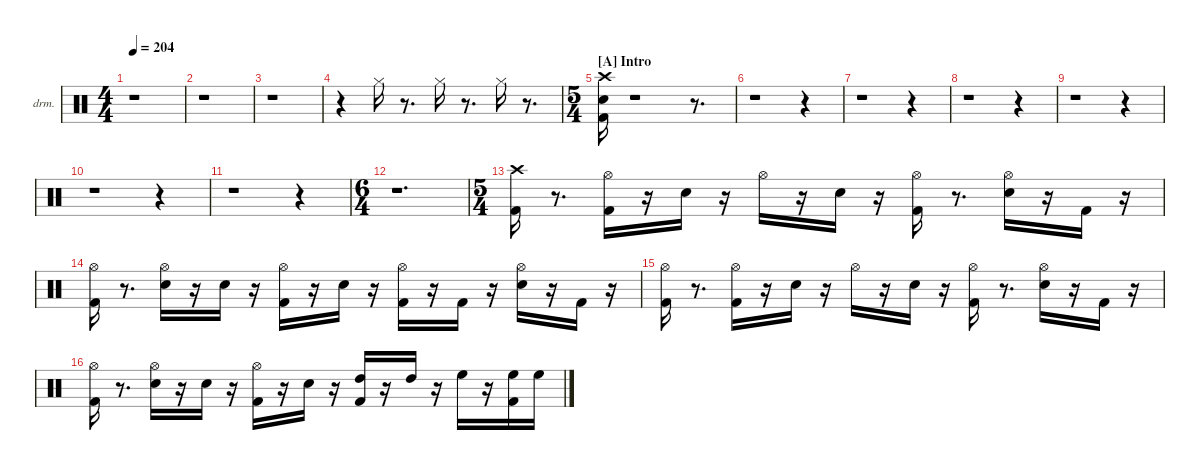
\hideDynamics
\bracketExtendMode nobrackets
\firstSystemTrackNameOrientation horizontal
\otherSystemsTrackNameOrientation horizontal
\track ("drums" "drm.") {instrument percussion}
\staff {score}
\articulation defaults
\ts (4 4)
\tempo 204
\clef neutral
\ks aminor
r.1{dy f beam Down} |
r.1{beam Down} |
r.1{beam Down} |
r.4{beam Down} "Hi-Hat (closed)"{acc #}.16{beam Down} r.8{d beam Down} "Hi-Hat (closed)"{acc #}.16{dy mf beam Down} r.8{d beam Down} "Hi-Hat (closed)"{acc #}.16{dy f beam Down} r.8{d beam Down} |
\ts (5 4)
\section ("A" "Intro")
("Kick (hit) 2" "Snare (hit) 2" "Crash high (hit)"{acc #}).16{dy fff beam Down} r.1{beam Down} r.8{d beam Down} |
r.1{beam Down} r.4{beam Down} |
r.1{beam Down} r.4{beam Down} |
r.1{beam Down} r.4{beam Down} |
r.1{beam Down} r.4{beam Down} |
r.1{beam Down} r.4{beam Down} |
r.1{beam Down} r.4{beam Down} |
\ts (6 4)
r.1{d beam Down} |
\ts (5 4)
("Kick (hit) 2" "Crash high (hit)"{acc #}).16{beam Down} r.8{d beam Down} ("Kick (hit) 2" "Hi-Hat (open)"{acc #}).16{dy f beam Down} r.16{beam Down} "Snare (hit) 2".16{dy ff beam Down} r.16{beam Down} "Hi-Hat (open)"{acc #}.16{dy f beam Down} r.16{beam Down} "Snare (hit) 2".16{beam Down} r.16{beam Down} ("Kick (hit) 2" "Hi-Hat (open)"{acc #}).16{dy ff beam Down} r.8{d beam Down} ("Snare (hit) 2" "Hi-Hat (open)"{acc #}).16{beam Down} r.16{beam Down} "Kick (hit) 2".16{dy mf beam Up} r.16{beam Up} |
("Kick (hit) 2" "Hi-Hat (open)"{acc #}).16{dy fff beam Down} r.8{d beam Down} ("Snare (hit) 2" "Hi-Hat (open)"{acc #}).16{dy ff beam Down} r.16{beam Down} "Snare (hit) 2".16{dy mp beam Down} r.16{beam Down} ("Kick (hit) 2" "Hi-Hat (open)"{acc #}).16{dy ff beam Down} r.16{beam Down} "Snare (hit) 2".16{dy mf beam Down} r.16{beam Down} ("Kick (hit) 2" "Hi-Hat (open)"{acc #}).16{beam Down} r.16{beam Down} "Kick (hit) 2".16{dy fff beam Up} r.16{beam Up} ("Snare (hit) 2" "Hi-Hat (open)"{acc #}).16{dy ff beam Down} r.16{beam Down} "Kick (hit) 2".16{dy mp beam Up} r.16{beam Up} |
("Kick (hit) 2" "Hi-Hat (open)"{acc #}).16{dy fff beam Down} r.8{d beam Down} ("Kick (hit) 2" "Hi-Hat (open)"{acc #}).16{dy f beam Down} r.16{beam Down} "Snare (hit) 2".16{dy ff beam Down} r.16{beam Down} "Hi-Hat (open)"{acc #}.16{dy f beam Down} r.16{beam Down} "Snare (hit) 2".16{beam Down} r.16{beam Down} ("Kick (hit) 2" "Hi-Hat (open)"{acc #}).16{dy ff beam Down} r.8{d beam Down} ("Snare (hit) 2" "Hi-Hat (open)"{acc #}).16{beam Down} r.16{beam Down} "Kick (hit) 2".16{dy mf beam Up} r.16{beam Up} |
("Kick (hit) 2" "Hi-Hat (open)"{acc #}).16{dy fff beam Down} r.8{d beam Down} ("Snare (hit) 2" "Hi-Hat (open)"{acc #}).16{dy ff beam Down} r.16{beam Down} "Snare (hit) 2".16{dy mp beam Down} r.16{beam Down} ("Kick (hit) 2" "Hi-Hat (open)"{acc #}).16{dy ff beam Down} r.16{beam Down} "Snare (hit) 2".16{dy mf beam Down} r.16{beam Down} ("Kick (hit) 2" "High Tom (hit)").16{dy fff beam Up} r.16{beam Up} "High Tom (hit)".16{dy mp beam Down} r.16{beam Down} "High Floor Tom (hit)".16{dy ff beam Down} r.16{beam Down} ("Kick (hit) 2" "High Floor Tom (hit)").16{dy mp beam Down} "High Floor Tom (hit)".16{dy pp beam Down}
